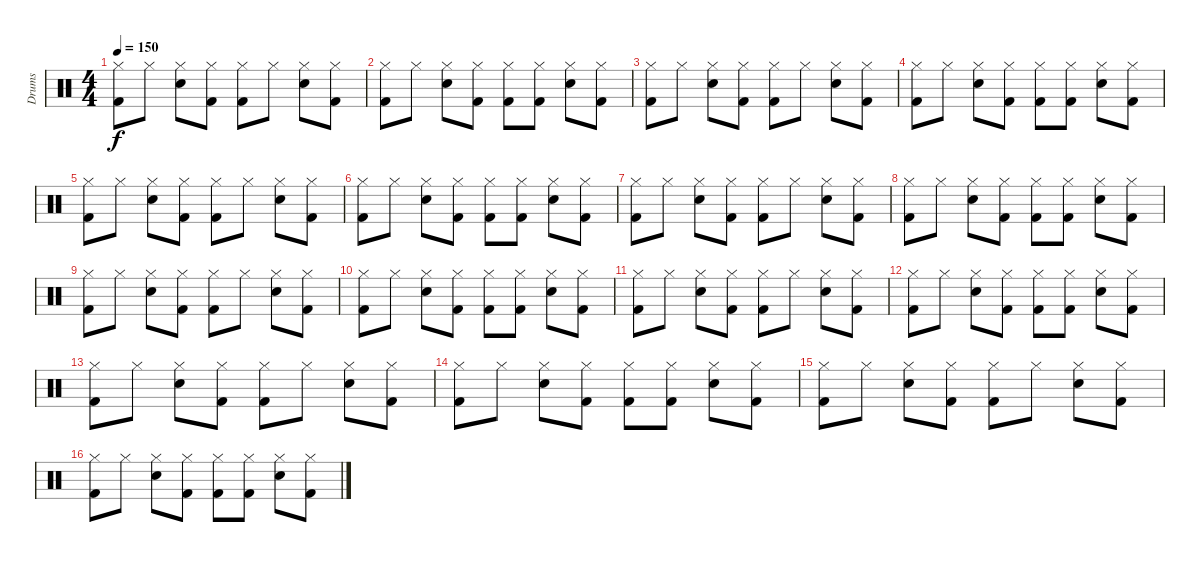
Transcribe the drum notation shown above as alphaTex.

\track ("Drums" "Drums") {instrument percussion}
\staff {score}
\articulation defaults
\ts (4 4)
\tempo 150
\clef neutral
\ks c
("Hi-Hat (closed)" "Kick (hit) 2").8{dy f} "Hi-Hat (closed)".8 ("Hi-Hat (closed)" "Snare (hit) 2").8 ("Hi-Hat (closed)" "Kick (hit) 2").8 ("Hi-Hat (closed)" "Kick (hit) 2").8 "Hi-Hat (closed)".8 ("Hi-Hat (closed)" "Snare (hit) 2").8 ("Hi-Hat (closed)" "Kick (hit) 2").8 |
("Hi-Hat (closed)" "Kick (hit) 2").8 "Hi-Hat (closed)".8 ("Hi-Hat (closed)" "Snare (hit) 2").8 ("Hi-Hat (closed)" "Kick (hit) 2").8 ("Hi-Hat (closed)" "Kick (hit) 2").8 ("Hi-Hat (closed)" "Kick (hit) 2").8 ("Hi-Hat (closed)" "Snare (hit) 2").8 ("Hi-Hat (closed)" "Kick (hit) 2").8 |
("Hi-Hat (closed)" "Kick (hit) 2").8 "Hi-Hat (closed)".8 ("Hi-Hat (closed)" "Snare (hit) 2").8 ("Hi-Hat (closed)" "Kick (hit) 2").8 ("Hi-Hat (closed)" "Kick (hit) 2").8 "Hi-Hat (closed)".8 ("Hi-Hat (closed)" "Snare (hit) 2").8 ("Hi-Hat (closed)" "Kick (hit) 2").8 |
("Hi-Hat (closed)" "Kick (hit) 2").8 "Hi-Hat (closed)".8 ("Hi-Hat (closed)" "Snare (hit) 2").8 ("Hi-Hat (closed)" "Kick (hit) 2").8 ("Hi-Hat (closed)" "Kick (hit) 2").8 ("Hi-Hat (closed)" "Kick (hit) 2").8 ("Hi-Hat (closed)" "Snare (hit) 2").8 ("Hi-Hat (closed)" "Kick (hit) 2").8 |
("Hi-Hat (closed)" "Kick (hit) 2").8 "Hi-Hat (closed)".8 ("Hi-Hat (closed)" "Snare (hit) 2").8 ("Hi-Hat (closed)" "Kick (hit) 2").8 ("Hi-Hat (closed)" "Kick (hit) 2").8 "Hi-Hat (closed)".8 ("Hi-Hat (closed)" "Snare (hit) 2").8 ("Hi-Hat (closed)" "Kick (hit) 2").8 |
("Hi-Hat (closed)" "Kick (hit) 2").8 "Hi-Hat (closed)".8 ("Hi-Hat (closed)" "Snare (hit) 2").8 ("Hi-Hat (closed)" "Kick (hit) 2").8 ("Hi-Hat (closed)" "Kick (hit) 2").8 ("Hi-Hat (closed)" "Kick (hit) 2").8 ("Hi-Hat (closed)" "Snare (hit) 2").8 ("Hi-Hat (closed)" "Kick (hit) 2").8 |
("Hi-Hat (closed)" "Kick (hit) 2").8 "Hi-Hat (closed)".8 ("Hi-Hat (closed)" "Snare (hit) 2").8 ("Hi-Hat (closed)" "Kick (hit) 2").8 ("Hi-Hat (closed)" "Kick (hit) 2").8 "Hi-Hat (closed)".8 ("Hi-Hat (closed)" "Snare (hit) 2").8 ("Hi-Hat (closed)" "Kick (hit) 2").8 |
("Hi-Hat (closed)" "Kick (hit) 2").8 "Hi-Hat (closed)".8 ("Hi-Hat (closed)" "Snare (hit) 2").8 ("Hi-Hat (closed)" "Kick (hit) 2").8 ("Hi-Hat (closed)" "Kick (hit) 2").8 ("Hi-Hat (closed)" "Kick (hit) 2").8 ("Hi-Hat (closed)" "Snare (hit) 2").8 ("Hi-Hat (closed)" "Kick (hit) 2").8 |
("Hi-Hat (closed)" "Kick (hit) 2").8 "Hi-Hat (closed)".8 ("Hi-Hat (closed)" "Snare (hit) 2").8 ("Hi-Hat (closed)" "Kick (hit) 2").8 ("Hi-Hat (closed)" "Kick (hit) 2").8 "Hi-Hat (closed)".8 ("Hi-Hat (closed)" "Snare (hit) 2").8 ("Hi-Hat (closed)" "Kick (hit) 2").8 |
("Hi-Hat (closed)" "Kick (hit) 2").8 "Hi-Hat (closed)".8 ("Hi-Hat (closed)" "Snare (hit) 2").8 ("Hi-Hat (closed)" "Kick (hit) 2").8 ("Hi-Hat (closed)" "Kick (hit) 2").8 ("Hi-Hat (closed)" "Kick (hit) 2").8 ("Hi-Hat (closed)" "Snare (hit) 2").8 ("Hi-Hat (closed)" "Kick (hit) 2").8 |
("Hi-Hat (closed)" "Kick (hit) 2").8 "Hi-Hat (closed)".8 ("Hi-Hat (closed)" "Snare (hit) 2").8 ("Hi-Hat (closed)" "Kick (hit) 2").8 ("Hi-Hat (closed)" "Kick (hit) 2").8 "Hi-Hat (closed)".8 ("Hi-Hat (closed)" "Snare (hit) 2").8 ("Hi-Hat (closed)" "Kick (hit) 2").8 |
("Hi-Hat (closed)" "Kick (hit) 2").8 "Hi-Hat (closed)".8 ("Hi-Hat (closed)" "Snare (hit) 2").8 ("Hi-Hat (closed)" "Kick (hit) 2").8 ("Hi-Hat (closed)" "Kick (hit) 2").8 ("Hi-Hat (closed)" "Kick (hit) 2").8 ("Hi-Hat (closed)" "Snare (hit) 2").8 ("Hi-Hat (closed)" "Kick (hit) 2").8 |
("Hi-Hat (closed)" "Kick (hit) 2").8 "Hi-Hat (closed)".8 ("Hi-Hat (closed)" "Snare (hit) 2").8 ("Hi-Hat (closed)" "Kick (hit) 2").8 ("Hi-Hat (closed)" "Kick (hit) 2").8 "Hi-Hat (closed)".8 ("Hi-Hat (closed)" "Snare (hit) 2").8 ("Hi-Hat (closed)" "Kick (hit) 2").8 |
("Hi-Hat (closed)" "Kick (hit) 2").8 "Hi-Hat (closed)".8 ("Hi-Hat (closed)" "Snare (hit) 2").8 ("Hi-Hat (closed)" "Kick (hit) 2").8 ("Hi-Hat (closed)" "Kick (hit) 2").8 ("Hi-Hat (closed)" "Kick (hit) 2").8 ("Hi-Hat (closed)" "Snare (hit) 2").8 ("Hi-Hat (closed)" "Kick (hit) 2").8 |
("Hi-Hat (closed)" "Kick (hit) 2").8 "Hi-Hat (closed)".8 ("Hi-Hat (closed)" "Snare (hit) 2").8 ("Hi-Hat (closed)" "Kick (hit) 2").8 ("Hi-Hat (closed)" "Kick (hit) 2").8 "Hi-Hat (closed)".8 ("Hi-Hat (closed)" "Snare (hit) 2").8 ("Hi-Hat (closed)" "Kick (hit) 2").8 |
("Hi-Hat (closed)" "Kick (hit) 2").8 "Hi-Hat (closed)".8 ("Hi-Hat (closed)" "Snare (hit) 2").8 ("Hi-Hat (closed)" "Kick (hit) 2").8 ("Hi-Hat (closed)" "Kick (hit) 2").8 ("Hi-Hat (closed)" "Kick (hit) 2").8 ("Hi-Hat (closed)" "Snare (hit) 2").8 ("Hi-Hat (closed)" "Kick (hit) 2").8
